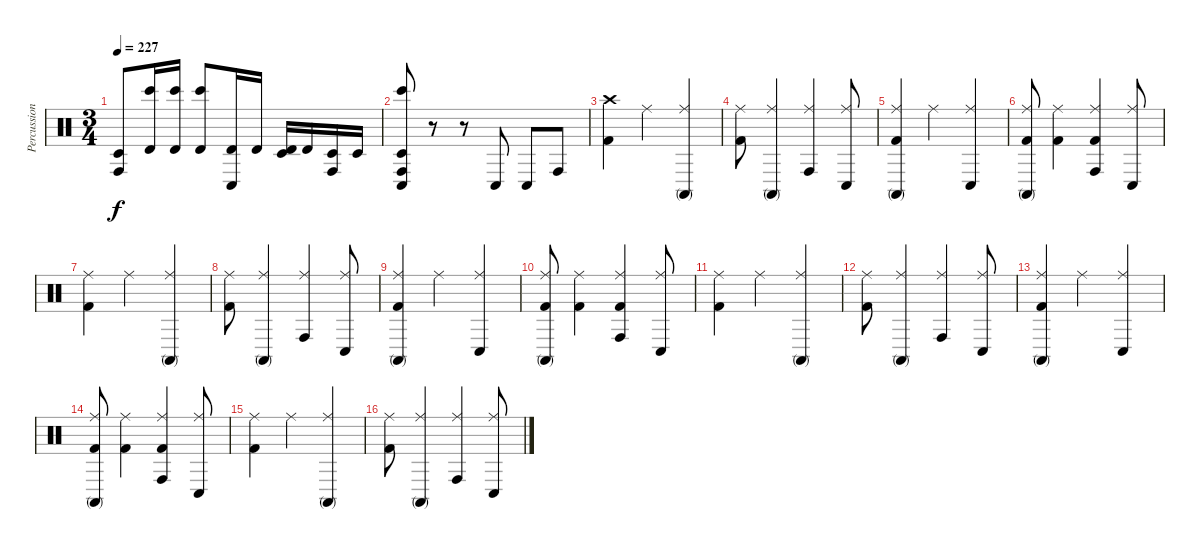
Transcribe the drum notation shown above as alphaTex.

\track ("Percussion" "Percussion") {instrument percussion}
\staff {score}
\articulation defaults
\ts (3 4)
\tempo 227
\clef neutral
\ks c
("Timbale low (hit)" "Conga high (hit)").8{dy f} ("Bongo High (hit)" "Timbale high (hit)").16 ("Bongo High (hit)" "Timbale high (hit)").16 ("Bongo High (hit)" "Timbale high (hit)").8 ("Timbale high (hit)" "Conga low (hit)").16 "Timbale high (hit)".16 ("Timbale high (hit)" "Timbale low (hit)").16 "Timbale high (hit)".16 ("Timbale low (hit)" "Conga high (hit)").16 "Timbale low (hit)".16 |
("Bongo High (hit)" "Timbale low (hit)" "Conga high (hit)" "Conga low (hit)").8 r.8 r.8 "Conga low (hit)".8 "Conga low (hit)".8 "Conga high (hit)".8 |
("Crash high (hit)" "Kick (hit) 2").4 "Ride (middle)".4 ("Ride (middle)" "Conga high (mute)").4 |
("Ride (middle)" "Kick (hit) 2").8 ("Ride (middle)" "Conga high (mute)").4 ("Ride (middle)" "Conga high (hit)").4 ("Ride (middle)" "Conga low (hit)").8 |
("Ride (middle)" "Conga high (mute)" "Kick (hit) 2").4 "Ride (middle)".4 ("Ride (middle)" "Conga low (hit)").4 |
("Ride (middle)" "Conga high (mute)" "Kick (hit) 2").8 ("Ride (middle)" "Kick (hit) 2").4 ("Ride (middle)" "Conga high (hit)" "Kick (hit) 2").4 ("Ride (middle)" "Conga low (hit)").8 |
("Ride (middle)" "Kick (hit) 2").4 "Ride (middle)".4 ("Ride (middle)" "Conga high (mute)").4 |
("Ride (middle)" "Kick (hit) 2").8 ("Ride (middle)" "Conga high (mute)").4 ("Ride (middle)" "Conga high (hit)").4 ("Ride (middle)" "Conga low (hit)").8 |
("Ride (middle)" "Conga high (mute)" "Kick (hit) 2").4 "Ride (middle)".4 ("Ride (middle)" "Conga low (hit)").4 |
("Ride (middle)" "Conga high (mute)" "Kick (hit) 2").8 ("Ride (middle)" "Kick (hit) 2").4 ("Ride (middle)" "Conga high (hit)" "Kick (hit) 2").4 ("Ride (middle)" "Conga low (hit)").8 |
("Ride (middle)" "Kick (hit) 2").4 "Ride (middle)".4 ("Ride (middle)" "Conga high (mute)").4 |
("Ride (middle)" "Kick (hit) 2").8 ("Ride (middle)" "Conga high (mute)").4 ("Ride (middle)" "Conga high (hit)").4 ("Ride (middle)" "Conga low (hit)").8 |
("Ride (middle)" "Conga high (mute)" "Kick (hit) 2").4 "Ride (middle)".4 ("Ride (middle)" "Conga low (hit)").4 |
("Ride (middle)" "Conga high (mute)" "Kick (hit) 2").8 ("Ride (middle)" "Kick (hit) 2").4 ("Ride (middle)" "Conga high (hit)" "Kick (hit) 2").4 ("Ride (middle)" "Conga low (hit)").8 |
("Ride (middle)" "Kick (hit) 2").4 "Ride (middle)".4 ("Ride (middle)" "Conga high (mute)").4 |
("Ride (middle)" "Kick (hit) 2").8 ("Ride (middle)" "Conga high (mute)").4 ("Ride (middle)" "Conga high (hit)").4 ("Ride (middle)" "Conga low (hit)").8
